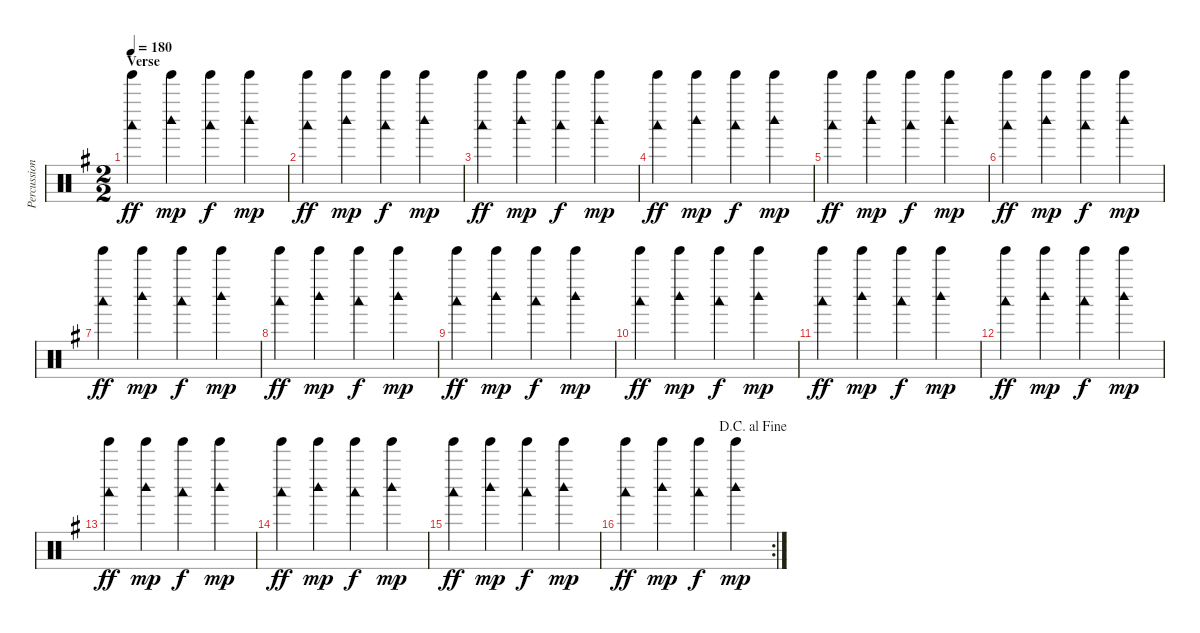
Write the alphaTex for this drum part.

\track ("Percussion" "Percussion") {instrument percussion}
\staff {score}
\articulation defaults
\ts (2 2)
\section ("" "Verse")
\tempo 180
\clef neutral
\ks g
("Tinkle Bell (hit)" "Woodblock low (hit)").4{dy ff} ("Tinkle Bell (hit)" "Woodblock high (hit)").4{dy mp} ("Tinkle Bell (hit)" "Woodblock low (hit)").4{dy f} ("Tinkle Bell (hit)" "Woodblock high (hit)").4{dy mp} |
("Tinkle Bell (hit)" "Woodblock low (hit)").4{dy ff} ("Tinkle Bell (hit)" "Woodblock high (hit)").4{dy mp} ("Tinkle Bell (hit)" "Woodblock low (hit)").4{dy f} ("Tinkle Bell (hit)" "Woodblock high (hit)").4{dy mp} |
("Tinkle Bell (hit)" "Woodblock low (hit)").4{dy ff} ("Tinkle Bell (hit)" "Woodblock high (hit)").4{dy mp} ("Tinkle Bell (hit)" "Woodblock low (hit)").4{dy f} ("Tinkle Bell (hit)" "Woodblock high (hit)").4{dy mp} |
("Tinkle Bell (hit)" "Woodblock low (hit)").4{dy ff} ("Tinkle Bell (hit)" "Woodblock high (hit)").4{dy mp} ("Tinkle Bell (hit)" "Woodblock low (hit)").4{dy f} ("Tinkle Bell (hit)" "Woodblock high (hit)").4{dy mp} |
("Tinkle Bell (hit)" "Woodblock low (hit)").4{dy ff} ("Tinkle Bell (hit)" "Woodblock high (hit)").4{dy mp} ("Tinkle Bell (hit)" "Woodblock low (hit)").4{dy f} ("Tinkle Bell (hit)" "Woodblock high (hit)").4{dy mp} |
("Tinkle Bell (hit)" "Woodblock low (hit)").4{dy ff} ("Tinkle Bell (hit)" "Woodblock high (hit)").4{dy mp} ("Tinkle Bell (hit)" "Woodblock low (hit)").4{dy f} ("Tinkle Bell (hit)" "Woodblock high (hit)").4{dy mp} |
("Tinkle Bell (hit)" "Woodblock low (hit)").4{dy ff} ("Tinkle Bell (hit)" "Woodblock high (hit)").4{dy mp} ("Tinkle Bell (hit)" "Woodblock low (hit)").4{dy f} ("Tinkle Bell (hit)" "Woodblock high (hit)").4{dy mp} |
("Tinkle Bell (hit)" "Woodblock low (hit)").4{dy ff} ("Tinkle Bell (hit)" "Woodblock high (hit)").4{dy mp} ("Tinkle Bell (hit)" "Woodblock low (hit)").4{dy f} ("Tinkle Bell (hit)" "Woodblock high (hit)").4{dy mp} |
("Tinkle Bell (hit)" "Woodblock low (hit)").4{dy ff} ("Tinkle Bell (hit)" "Woodblock high (hit)").4{dy mp} ("Tinkle Bell (hit)" "Woodblock low (hit)").4{dy f} ("Tinkle Bell (hit)" "Woodblock high (hit)").4{dy mp} |
("Tinkle Bell (hit)" "Woodblock low (hit)").4{dy ff} ("Tinkle Bell (hit)" "Woodblock high (hit)").4{dy mp} ("Tinkle Bell (hit)" "Woodblock low (hit)").4{dy f} ("Tinkle Bell (hit)" "Woodblock high (hit)").4{dy mp} |
("Tinkle Bell (hit)" "Woodblock low (hit)").4{dy ff} ("Tinkle Bell (hit)" "Woodblock high (hit)").4{dy mp} ("Tinkle Bell (hit)" "Woodblock low (hit)").4{dy f} ("Tinkle Bell (hit)" "Woodblock high (hit)").4{dy mp} |
("Tinkle Bell (hit)" "Woodblock low (hit)").4{dy ff} ("Tinkle Bell (hit)" "Woodblock high (hit)").4{dy mp} ("Tinkle Bell (hit)" "Woodblock low (hit)").4{dy f} ("Tinkle Bell (hit)" "Woodblock high (hit)").4{dy mp} |
("Tinkle Bell (hit)" "Woodblock low (hit)").4{dy ff} ("Tinkle Bell (hit)" "Woodblock high (hit)").4{dy mp} ("Tinkle Bell (hit)" "Woodblock low (hit)").4{dy f} ("Tinkle Bell (hit)" "Woodblock high (hit)").4{dy mp} |
("Tinkle Bell (hit)" "Woodblock low (hit)").4{dy ff} ("Tinkle Bell (hit)" "Woodblock high (hit)").4{dy mp} ("Tinkle Bell (hit)" "Woodblock low (hit)").4{dy f} ("Tinkle Bell (hit)" "Woodblock high (hit)").4{dy mp} |
("Tinkle Bell (hit)" "Woodblock low (hit)").4{dy ff} ("Tinkle Bell (hit)" "Woodblock high (hit)").4{dy mp} ("Tinkle Bell (hit)" "Woodblock low (hit)").4{dy f} ("Tinkle Bell (hit)" "Woodblock high (hit)").4{dy mp} |
\rc 2
\jump dacapoalfine
("Tinkle Bell (hit)" "Woodblock low (hit)").4{dy ff} ("Tinkle Bell (hit)" "Woodblock high (hit)").4{dy mp} ("Tinkle Bell (hit)" "Woodblock low (hit)").4{dy f} ("Tinkle Bell (hit)" "Woodblock high (hit)").4{dy mp}
